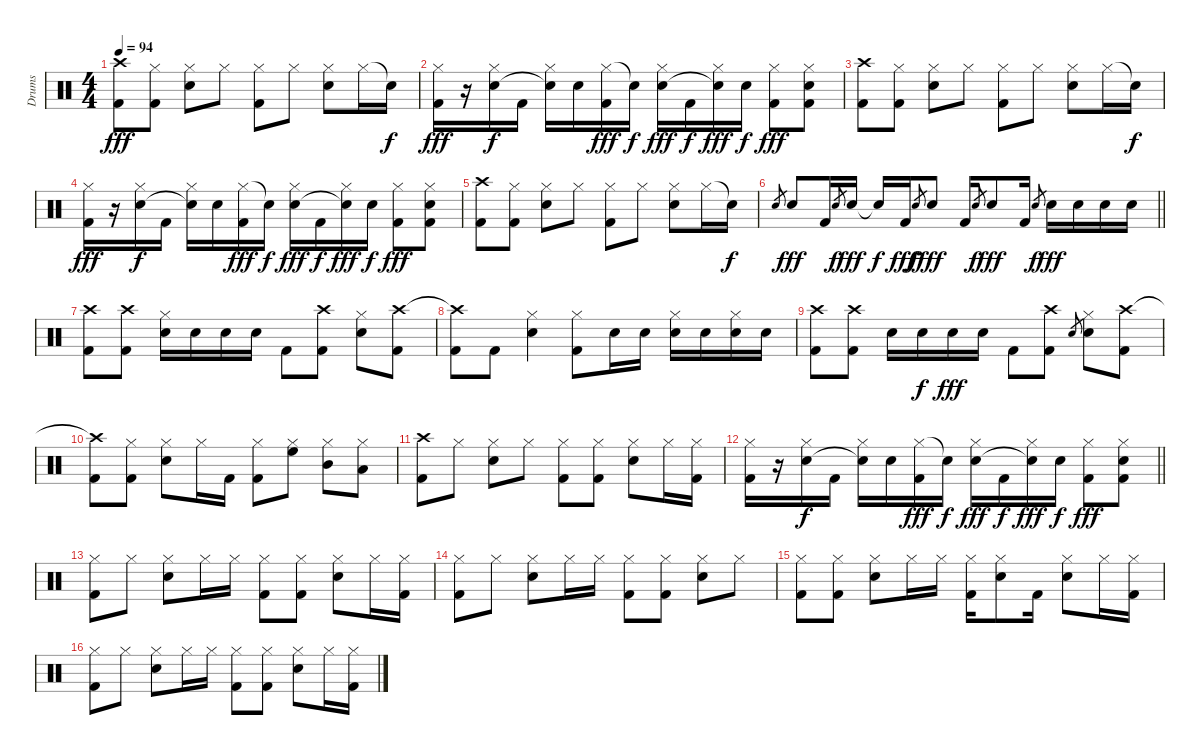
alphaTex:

\track ("Drums" "Drums") {instrument percussion}
\staff {score}
\articulation defaults
\ts (4 4)
\tempo 94
\clef neutral
\ks c
("Crash high (hit)" "Kick (hit) 2").8{dy fff} ("Hi-Hat (closed)" "Kick (hit) 2").8 ("Hi-Hat (closed)" "Snare (hit) 2").8 "Hi-Hat (closed)".8 ("Hi-Hat (closed)" "Kick (hit) 2").8 "Hi-Hat (closed)".8 ("Hi-Hat (closed)" "Snare (hit) 2").8 "Hi-Hat (closed)".16 "Snare (hit)"{t}.16{dy f} |
("Hi-Hat (closed)" "Kick (hit) 2").16{dy fff} r.16 ("Hi-Hat (closed)" "Snare (hit) 2").16{dy f} "Kick (hit) 2".16 ("Hi-Hat (closed)" "Snare (hit)"{t}).16 "Snare (hit) 2".16 ("Hi-Hat (closed)" "Kick (hit) 2").16{dy fff} "Snare (hit)"{t}.16{dy f} ("Hi-Hat (closed)" "Snare (hit) 2").16{dy fff} "Kick (hit) 2".16{dy f} ("Hi-Hat (closed)" "Snare (hit)"{t}).16{dy fff} "Snare (hit) 2".16{dy f} ("Hi-Hat (closed)" "Kick (hit) 2").8{dy fff} ("Hi-Hat (closed)" "Snare (hit) 2" "Kick (hit) 2").8 |
("Crash high (hit)" "Kick (hit) 2").8 ("Hi-Hat (closed)" "Kick (hit) 2").8 ("Hi-Hat (closed)" "Snare (hit) 2").8 "Hi-Hat (closed)".8 ("Hi-Hat (closed)" "Kick (hit) 2").8 "Hi-Hat (closed)".8 ("Hi-Hat (closed)" "Snare (hit) 2").8 "Hi-Hat (closed)".16 "Snare (hit)"{t}.16{dy f} |
("Hi-Hat (closed)" "Kick (hit) 2").16{dy fff} r.16 ("Hi-Hat (closed)" "Snare (hit) 2").16{dy f} "Kick (hit) 2".16 ("Hi-Hat (closed)" "Snare (hit)"{t}).16 "Snare (hit) 2".16 ("Hi-Hat (closed)" "Kick (hit) 2").16{dy fff} "Snare (hit)"{t}.16{dy f} ("Hi-Hat (closed)" "Snare (hit) 2").16{dy fff} "Kick (hit) 2".16{dy f} ("Hi-Hat (closed)" "Snare (hit)"{t}).16{dy fff} "Snare (hit) 2".16{dy f} ("Hi-Hat (closed)" "Kick (hit) 2").8{dy fff} ("Hi-Hat (closed)" "Snare (hit) 2" "Kick (hit) 2").8 |
("Crash high (hit)" "Kick (hit) 2").8 ("Hi-Hat (closed)" "Kick (hit) 2").8 ("Hi-Hat (closed)" "Snare (hit) 2").8 "Hi-Hat (closed)".8 ("Hi-Hat (closed)" "Kick (hit) 2").8 "Hi-Hat (closed)".8 ("Hi-Hat (closed)" "Snare (hit) 2").8 "Hi-Hat (closed)".16 "Snare (hit)"{t}.16{dy f} |
\barLineRight lightlight "Snare (hit) 2".8{gr} "Snare (hit) 2".8{dy fff} "Kick (hit) 2".16 "Snare (hit) 2".8{gr dy f} "Snare (hit) 2".16{dy fff} "Snare (hit)"{t}.16{dy f} "Kick (hit) 2".16{dy fff} "Snare (hit) 2".8{gr dy f} "Snare (hit) 2".8{dy fff} "Kick (hit) 2".16 "Snare (hit) 2".8{gr dy f} "Snare (hit) 2".8{dy fff} "Kick (hit) 2".16 "Snare (hit) 2".8{gr dy f} "Snare (hit) 2".16{dy fff} "Snare (hit) 2".16 "Snare (hit) 2".16 "Snare (hit) 2".16
|
("Crash high (hit)" "Kick (hit) 2").8 ("Crash high (hit)" "Kick (hit) 2").8 ("Hi-Hat (closed)" "Snare (hit) 2").16 "Snare (hit) 2".16 "Snare (hit) 2".16 "Snare (hit) 2".16 "Kick (hit) 2".8 ("Crash high (hit)" "Kick (hit) 2").8 ("Hi-Hat (closed)" "Snare (hit) 2").8 ("Crash high (hit)" "Kick (hit) 2").8 |
("Crash high (hit)"{t} "Kick (hit) 2").8 "Kick (hit) 2".8 ("Hi-Hat (closed)" "Snare (hit) 2").4 ("Hi-Hat (closed)" "Kick (hit) 2").8 "Snare (hit) 2".16 "Snare (hit) 2".16 ("Hi-Hat (closed)" "Snare (hit) 2").16 "Snare (hit) 2".16 ("Hi-Hat (closed)" "Snare (hit) 2").16 "Snare (hit) 2".16 |
("Crash high (hit)" "Kick (hit) 2").8 ("Crash high (hit)" "Kick (hit) 2").8 "Snare (hit) 2".16 "Snare (hit) 2".16{dy f} "Snare (hit) 2".16{dy fff} "Snare (hit) 2".16 "Kick (hit) 2".8 ("Crash high (hit)" "Kick (hit) 2").8 "Snare (hit) 2".8{gr} ("Hi-Hat (closed)" "Snare (hit) 2").8 ("Crash high (hit)" "Kick (hit) 2").8 |
("Crash high (hit)"{t} "Kick (hit) 2").8 ("Hi-Hat (closed)" "Kick (hit) 2").8 ("Hi-Hat (closed)" "Snare (hit) 2").8 "Hi-Hat (closed)".16 "Kick (hit) 2".16 ("Hi-Hat (closed)" "Kick (hit) 2").8 ("Hi-Hat (closed)" "High Floor Tom (hit)").8 ("Hi-Hat (closed)" "Mid Tom (hit)").8 ("Hi-Hat (closed)" "Low Tom (hit)").8 |
("Crash high (hit)" "Kick (hit) 2").8 "Hi-Hat (closed)".8 ("Hi-Hat (closed)" "Snare (hit) 2").8 "Hi-Hat (closed)".8 ("Hi-Hat (closed)" "Kick (hit) 2").8 ("Hi-Hat (closed)" "Kick (hit) 2").8 ("Hi-Hat (closed)" "Snare (hit) 2").8 "Hi-Hat (closed)".16 ("Hi-Hat (closed)" "Kick (hit) 2").16 |
\barLineRight lightlight
("Hi-Hat (closed)" "Kick (hit) 2").16 r.16 ("Hi-Hat (closed)" "Snare (hit) 2").16{dy f} "Kick (hit) 2".16 ("Hi-Hat (closed)" "Snare (hit)"{t}).16 "Snare (hit) 2".16 ("Hi-Hat (closed)" "Kick (hit) 2").16{dy fff} "Snare (hit)"{t}.16{dy f} ("Hi-Hat (closed)" "Snare (hit) 2").16{dy fff} "Kick (hit) 2".16{dy f} ("Hi-Hat (closed)" "Snare (hit)"{t}).16{dy fff} "Snare (hit) 2".16{dy f} ("Hi-Hat (closed)" "Kick (hit) 2").8{dy fff} ("Hi-Hat (closed)" "Snare (hit) 2" "Kick (hit) 2").8 |
("Hi-Hat (closed)" "Kick (hit) 2").8 "Hi-Hat (closed)".8 ("Hi-Hat (closed)" "Snare (hit) 2").8 "Hi-Hat (closed)".16 "Hi-Hat (closed)".16 ("Hi-Hat (closed)" "Kick (hit) 2").8 ("Hi-Hat (closed)" "Kick (hit) 2").8 ("Hi-Hat (closed)" "Snare (hit) 2").8 "Hi-Hat (closed)".16 ("Hi-Hat (closed)" "Kick (hit) 2").16 |
("Hi-Hat (closed)" "Kick (hit) 2").8 "Hi-Hat (closed)".8 ("Hi-Hat (closed)" "Snare (hit) 2").8 "Hi-Hat (closed)".16 "Hi-Hat (closed)".16 ("Hi-Hat (closed)" "Kick (hit) 2").8 ("Hi-Hat (closed)" "Kick (hit) 2").8 ("Hi-Hat (closed)" "Snare (hit) 2").8 "Hi-Hat (closed)".8 |
("Hi-Hat (closed)" "Kick (hit) 2").8 ("Hi-Hat (closed)" "Kick (hit) 2").8 ("Hi-Hat (closed)" "Snare (hit) 2").8 "Hi-Hat (closed)".16 "Hi-Hat (closed)".16 ("Hi-Hat (closed)" "Kick (hit) 2").16 ("Hi-Hat (closed)" "Snare (hit) 2").8 "Kick (hit) 2".16 ("Hi-Hat (closed)" "Snare (hit) 2").8 "Hi-Hat (closed)".16 ("Hi-Hat (closed)" "Kick (hit) 2").16 |
("Hi-Hat (closed)" "Kick (hit) 2").8 "Hi-Hat (closed)".8 ("Hi-Hat (closed)" "Snare (hit) 2").8 "Hi-Hat (closed)".16 "Hi-Hat (closed)".16 ("Hi-Hat (closed)" "Kick (hit) 2").8 ("Hi-Hat (closed)" "Kick (hit) 2").8 ("Hi-Hat (closed)" "Snare (hit) 2").8 "Hi-Hat (closed)".16 ("Hi-Hat (closed)" "Kick (hit) 2").16
